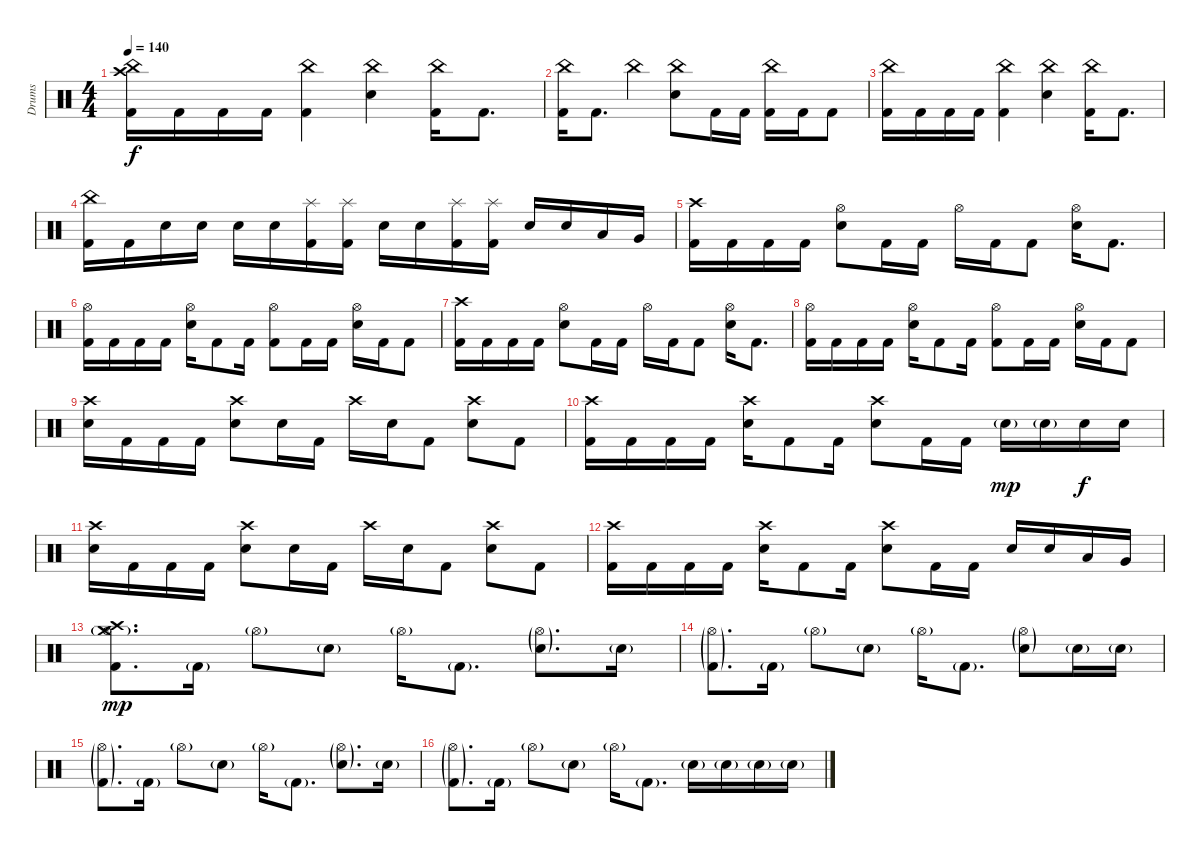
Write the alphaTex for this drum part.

\track ("Drums" "Drums") {instrument percussion}
\staff {score}
\articulation defaults
\ts (4 4)
\tempo 140
\clef neutral
\ks c
("China (hit)" "Crash high (hit)" "Kick (hit) 2").16{dy f} "Kick (hit) 2".16 "Kick (hit) 2".16 "Kick (hit) 2".16 ("China (hit)" "Kick (hit) 2").4 ("China (hit)" "Electric Snare (hit)").4 ("China (hit)" "Kick (hit) 2").16 "Kick (hit) 2".8{d} |
("China (hit)" "Kick (hit) 2").16 "Kick (hit) 2".8{d} "China (hit)".4 ("China (hit)" "Electric Snare (hit)").8 "Kick (hit) 2".16 "Kick (hit) 2".16 ("China (hit)" "Kick (hit) 2").16 "Kick (hit) 2".16 "Kick (hit) 2".8 |
("China (hit)" "Kick (hit) 2").16 "Kick (hit) 2".16 "Kick (hit) 2".16 "Kick (hit) 2".16 ("China (hit)" "Kick (hit) 2").4 ("China (hit)" "Electric Snare (hit)").4 ("China (hit)" "Kick (hit) 2").16 "Kick (hit) 2".8{d} |
("China (hit)" "Kick (hit) 2").16 "Kick (hit) 2".16 "Electric Snare (hit)".16 "Electric Snare (hit)".16 "Electric Snare (hit)".16 "Electric Snare (hit)".16 ("Splash (hit)" "Kick (hit) 2").16 ("Splash (hit)" "Kick (hit) 2").16 "Electric Snare (hit)".16 "Electric Snare (hit)".16 ("Splash (hit)" "Kick (hit) 2").16 ("Splash (hit)" "Kick (hit) 2").16 "Electric Snare (hit)".16 "Electric Snare (hit)".16 "Low Tom (hit)".16 "Very Low Tom (hit)".16 |
("Crash high (hit)" "Kick (hit) 2").16 "Kick (hit) 2".16 "Kick (hit) 2".16 "Kick (hit) 2".16 ("Hi-Hat (open)" "Electric Snare (hit)").8 "Kick (hit) 2".16 "Kick (hit) 2".16 "Hi-Hat (open)".16 "Kick (hit) 2".16 "Kick (hit) 2".8 ("Hi-Hat (open)" "Electric Snare (hit)").16 "Kick (hit) 2".8{d} |
("Hi-Hat (open)" "Kick (hit) 2").16 "Kick (hit) 2".16 "Kick (hit) 2".16 "Kick (hit) 2".16 ("Hi-Hat (open)" "Electric Snare (hit)").16 "Kick (hit) 2".8 "Kick (hit) 2".16 ("Hi-Hat (open)" "Kick (hit) 2").8 "Kick (hit) 2".16 "Kick (hit) 2".16 ("Hi-Hat (open)" "Electric Snare (hit)").16 "Kick (hit) 2".16 "Kick (hit) 2".8 |
("Crash high (hit)" "Kick (hit) 2").16 "Kick (hit) 2".16 "Kick (hit) 2".16 "Kick (hit) 2".16 ("Hi-Hat (open)" "Electric Snare (hit)").8 "Kick (hit) 2".16 "Kick (hit) 2".16 "Hi-Hat (open)".16 "Kick (hit) 2".16 "Kick (hit) 2".8 ("Hi-Hat (open)" "Electric Snare (hit)").16 "Kick (hit) 2".8{d} |
("Hi-Hat (open)" "Kick (hit) 2").16 "Kick (hit) 2".16 "Kick (hit) 2".16 "Kick (hit) 2".16 ("Hi-Hat (open)" "Electric Snare (hit)").16 "Kick (hit) 2".8 "Kick (hit) 2".16 ("Hi-Hat (open)" "Kick (hit) 2").8 "Kick (hit) 2".16 "Kick (hit) 2".16 ("Hi-Hat (open)" "Electric Snare (hit)").16 "Kick (hit) 2".16 "Kick (hit) 2".8 |
("Crash high (hit)" "Electric Snare (hit)").16 "Kick (hit) 2".16 "Kick (hit) 2".16 "Kick (hit) 2".16 ("Crash high (hit)" "Electric Snare (hit)").8 "Electric Snare (hit)".16 "Kick (hit) 2".16 "Crash high (hit)".16 "Electric Snare (hit)".16 "Kick (hit) 2".8 ("Crash high (hit)" "Electric Snare (hit)").8 "Kick (hit) 2".8 |
("Crash high (hit)" "Kick (hit) 2").16 "Kick (hit) 2".16 "Kick (hit) 2".16 "Kick (hit) 2".16 ("Crash high (hit)" "Electric Snare (hit)").16 "Kick (hit) 2".8 "Kick (hit) 2".16 ("Crash high (hit)" "Electric Snare (hit)").8 "Kick (hit) 2".16 "Kick (hit) 2".16 "Electric Snare (hit)"{g}.16{dy mp} "Electric Snare (hit)"{g}.16 "Electric Snare (hit)".16{dy f} "Electric Snare (hit)".16 |
("Crash high (hit)" "Electric Snare (hit)").16 "Kick (hit) 2".16 "Kick (hit) 2".16 "Kick (hit) 2".16 ("Crash high (hit)" "Electric Snare (hit)").8 "Electric Snare (hit)".16 "Kick (hit) 2".16 "Crash high (hit)".16 "Electric Snare (hit)".16 "Kick (hit) 2".8 ("Crash high (hit)" "Electric Snare (hit)").8 "Kick (hit) 2".8 |
("Crash high (hit)" "Kick (hit) 2").16 "Kick (hit) 2".16 "Kick (hit) 2".16 "Kick (hit) 2".16 ("Crash high (hit)" "Electric Snare (hit)").16 "Kick (hit) 2".8 "Kick (hit) 2".16 ("Crash high (hit)" "Electric Snare (hit)").8 "Kick (hit) 2".16 "Kick (hit) 2".16 "Electric Snare (hit)".16 "Electric Snare (hit)".16 "Low Tom (hit)".16 "Very Low Tom (hit)".16 |
("Hi-Hat (open)"{g} "Crash medium (hit)" "Crash high (hit)" "Kick (hit) 2").8{d dy mp} "Kick (hit) 2"{g}.16 "Hi-Hat (open)"{g}.8 "Electric Snare (hit)"{g}.8 "Hi-Hat (open)"{g}.16 "Kick (hit) 2"{g}.8{d} ("Hi-Hat (open)"{g} "Electric Snare (hit)"{g}).8{d} "Electric Snare (hit)"{g}.16 |
("Hi-Hat (open)"{g} "Kick (hit) 2"{g}).8{d} "Kick (hit) 2"{g}.16 "Hi-Hat (open)"{g}.8 "Electric Snare (hit)"{g}.8 "Hi-Hat (open)"{g}.16 "Kick (hit) 2"{g}.8{d} ("Hi-Hat (open)"{g} "Electric Snare (hit)"{g}).8 "Electric Snare (hit)"{g}.16 "Electric Snare (hit)"{g}.16 |
("Hi-Hat (open)"{g} "Kick (hit) 2"{g}).8{d} "Kick (hit) 2"{g}.16 "Hi-Hat (open)"{g}.8 "Electric Snare (hit)"{g}.8 "Hi-Hat (open)"{g}.16 "Kick (hit) 2"{g}.8{d} ("Hi-Hat (open)"{g} "Electric Snare (hit)"{g}).8{d} "Electric Snare (hit)"{g}.16 |
("Hi-Hat (open)"{g} "Kick (hit) 2"{g}).8{d} "Kick (hit) 2"{g}.16 "Hi-Hat (open)"{g}.8 "Electric Snare (hit)"{g}.8 "Hi-Hat (open)"{g}.16 "Kick (hit) 2"{g}.8{d} "Electric Snare (hit)"{g}.16 "Electric Snare (hit)"{g}.16 "Electric Snare (hit)"{g}.16 "Electric Snare (hit)"{g}.16
